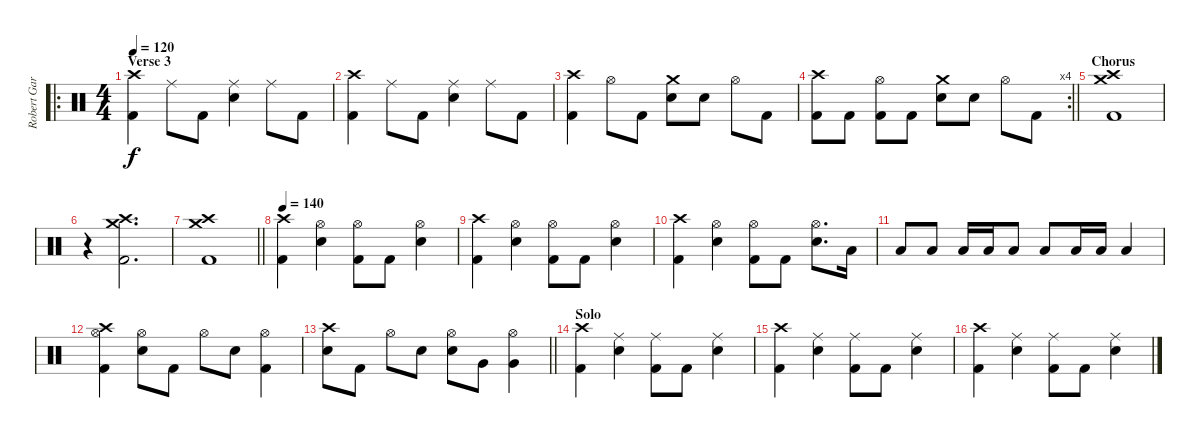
\track ("Robert Garven" "Robert Gar") {instrument percussion}
\staff {score}
\articulation defaults
\ro
\ts (4 4)
\section ("" "Verse 3")
\tempo 120
\clef neutral
\ks c
("Crash high (hit)" "Kick (hit) 2").4{dy f} "Ride (middle)".8 "Kick (hit) 2".8 ("Ride (middle)" "Electric Snare (hit)").4 "Ride (middle)".8 "Kick (hit) 2".8 |
("Crash high (hit)" "Kick (hit) 2").4 "Ride (middle)".8 "Kick (hit) 2".8 ("Ride (middle)" "Electric Snare (hit)").4 "Ride (middle)".8 "Kick (hit) 2".8 |
("Crash high (hit)" "Kick (hit) 2").4 "Hi-Hat (open)".8 "Kick (hit) 2".8 ("Crash medium (hit)" "Electric Snare (hit)").8 "Electric Snare (hit)".8 "Hi-Hat (open)".8 "Kick (hit) 2".8 |
\rc 4
\barLineRight lightlight
("Crash high (hit)" "Kick (hit) 2").8 "Kick (hit) 2".8 ("Hi-Hat (open)" "Kick (hit) 2").8 "Kick (hit) 2".8 ("Crash medium (hit)" "Electric Snare (hit)").8 "Electric Snare (hit)".8 "Hi-Hat (open)".8 "Kick (hit) 2".8 |
\section ("" "Chorus")
("Crash high (hit)" "Crash medium (hit)" "Kick (hit) 2").1 |
r.4 ("Crash high (hit)" "Crash medium (hit)" "Kick (hit) 2").2{d} |
\barLineRight lightlight
("Crash high (hit)" "Crash medium (hit)" "Kick (hit) 2").1 |
\tempo 140
("Crash high (hit)" "Kick (hit) 2").4 ("Hi-Hat (open)" "Electric Snare (hit)").4 ("Hi-Hat (open)" "Kick (hit) 2").8 "Kick (hit) 2".8 ("Hi-Hat (open)" "Electric Snare (hit)").4 |
("Crash high (hit)" "Kick (hit) 2").4 ("Hi-Hat (open)" "Electric Snare (hit)").4 ("Hi-Hat (open)" "Kick (hit) 2").8 "Kick (hit) 2".8 ("Hi-Hat (open)" "Electric Snare (hit)").4 |
("Crash high (hit)" "Kick (hit) 2").4 ("Hi-Hat (open)" "Electric Snare (hit)").4 ("Hi-Hat (open)" "Kick (hit) 2").8 "Kick (hit) 2".8 ("Hi-Hat (open)" "Electric Snare (hit)").8{d} "Low Tom (hit)".16 |
"Low Tom (hit)".8 "Low Floor Tom (hit)".8 "Low Floor Tom (hit)".16 "Low Floor Tom (hit)".16 "Low Tom (hit)".8 "Low Tom (hit)".8 "Low Floor Tom (hit)".16 "Low Tom (hit)".16 "Low Tom (hit)".4 |
("Crash high (hit)" "Hi-Hat (open)" "Kick (hit) 2").4 ("Hi-Hat (open)" "Electric Snare (hit)").8 "Kick (hit) 2".8 "Hi-Hat (open)".8 "Electric Snare (hit)".8 ("Hi-Hat (open)" "Kick (hit) 2").4 |
\barLineRight lightlight
("Crash high (hit)" "Electric Snare (hit)").8 "Kick (hit) 2".8 "Hi-Hat (open)".8 "Electric Snare (hit)".8 ("Hi-Hat (open)" "Electric Snare (hit)").8 "Very Low Tom (hit)".8 ("Hi-Hat (open)" "Very Low Tom (hit)").4 |
\section ("" "Solo")
("Crash high (hit)" "Kick (hit) 2").4 ("Ride (middle)" "Electric Snare (hit)").4 ("Ride (middle)" "Kick (hit) 2").8 "Kick (hit) 2".8 ("Ride (middle)" "Electric Snare (hit)").4 |
("Crash high (hit)" "Kick (hit) 2").4 ("Ride (middle)" "Electric Snare (hit)").4 ("Ride (middle)" "Kick (hit) 2").8 "Kick (hit) 2".8 ("Ride (middle)" "Electric Snare (hit)").4 |
("Crash high (hit)" "Kick (hit) 2").4 ("Ride (middle)" "Electric Snare (hit)").4 ("Ride (middle)" "Kick (hit) 2").8 "Kick (hit) 2".8 ("Ride (middle)" "Electric Snare (hit)").4
